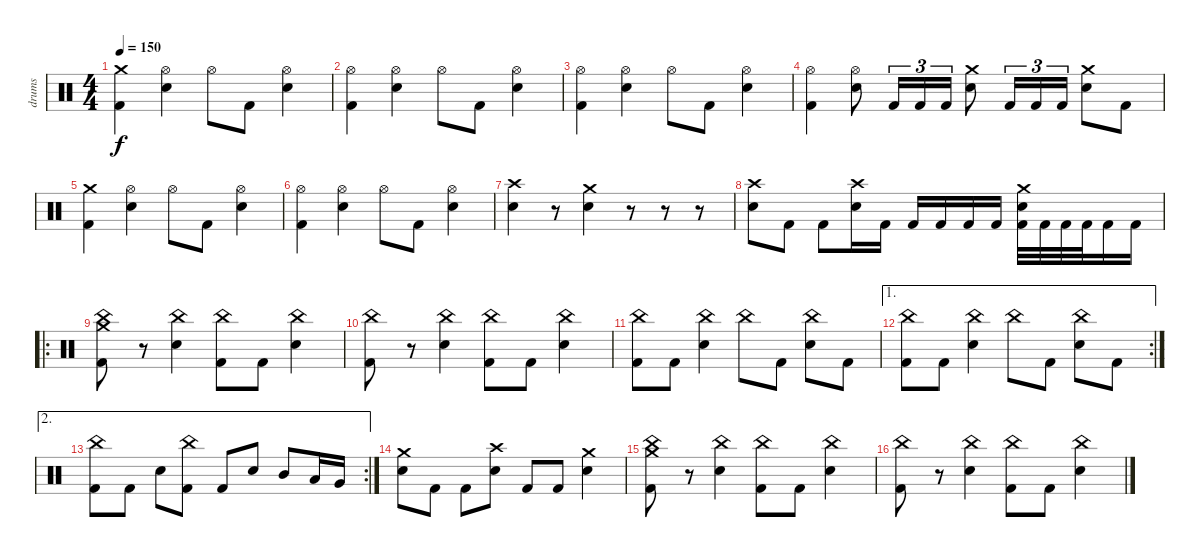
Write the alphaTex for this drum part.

\track ("drums" "drums") {instrument percussion}
\staff {score}
\articulation defaults
\ts (4 4)
\tempo 150
\clef neutral
\ks c
("Crash medium (hit)" "Kick (hit) 2").4{dy f} ("Hi-Hat (open)" "Electric Snare (hit)").4 "Hi-Hat (open)".8 "Kick (hit) 2".8 ("Hi-Hat (open)" "Electric Snare (hit)").4 |
("Hi-Hat (open)" "Kick (hit) 2").4 ("Hi-Hat (open)" "Electric Snare (hit)").4 "Hi-Hat (open)".8 "Kick (hit) 2".8 ("Hi-Hat (open)" "Electric Snare (hit)").4 |
("Hi-Hat (open)" "Kick (hit) 2").4 ("Hi-Hat (open)" "Electric Snare (hit)").4 "Hi-Hat (open)".8 "Kick (hit) 2".8 ("Hi-Hat (open)" "Electric Snare (hit)").4 |
("Hi-Hat (open)" "Kick (hit) 2").4 ("Hi-Hat (open)" "Electric Snare (hit)").8 "Kick (hit) 2".16{tu (3 2)} "Kick (hit) 2".16{tu (3 2)} "Kick (hit) 2".16{tu (3 2)} ("Crash medium (hit)" "Electric Snare (hit)").8 "Kick (hit) 2".16{tu (3 2)} "Kick (hit) 2".16{tu (3 2)} "Kick (hit) 2".16{tu (3 2)} ("Crash medium (hit)" "Electric Snare (hit)").8 "Kick (hit) 2".8 |
("Crash medium (hit)" "Kick (hit) 2").4 ("Hi-Hat (open)" "Electric Snare (hit)").4 "Hi-Hat (open)".8 "Kick (hit) 2".8 ("Hi-Hat (open)" "Electric Snare (hit)").4 |
("Hi-Hat (open)" "Kick (hit) 2").4 ("Hi-Hat (open)" "Electric Snare (hit)").4 "Hi-Hat (open)".8 "Kick (hit) 2".8 ("Hi-Hat (open)" "Electric Snare (hit)").4 |
("Crash high (hit)" "Electric Snare (hit)").4 r.8 ("Crash medium (hit)" "Electric Snare (hit)").4 r.8 r.8 r.8 |
("Crash high (hit)" "Electric Snare (hit)").8 "Kick (hit) 2".8 "Kick (hit) 2".8 ("Crash high (hit)" "Electric Snare (hit)").16 "Kick (hit) 2".16 "Kick (hit) 2".16 "Kick (hit) 2".16 "Kick (hit) 2".16 "Kick (hit) 2".16 ("Crash medium (hit)" "Electric Snare (hit)" "Kick (hit) 2").32 "Kick (hit) 2".32 "Kick (hit) 2".32 "Kick (hit) 2".32 "Kick (hit) 2".16 "Kick (hit) 2".16 |
\ro
("China (hit)" "Crash medium (hit)" "Kick (hit) 2").8 r.8 ("China (hit)" "Electric Snare (hit)").4 ("China (hit)" "Kick (hit) 2").8 "Kick (hit) 2".8 ("China (hit)" "Electric Snare (hit)").4 |
("China (hit)" "Kick (hit) 2").8 r.8 ("China (hit)" "Electric Snare (hit)").4 ("China (hit)" "Kick (hit) 2").8 "Kick (hit) 2".8 ("China (hit)" "Electric Snare (hit)").4 |
("China (hit)" "Kick (hit) 2").8 "Kick (hit) 2".8 ("China (hit)" "Electric Snare (hit)").4 "China (hit)".8 "Kick (hit) 2".8 ("China (hit)" "Electric Snare (hit)").8 "Kick (hit) 2".8 |
\ae 1
\rc 2
("China (hit)" "Kick (hit) 2").8 "Kick (hit) 2".8 ("China (hit)" "Electric Snare (hit)").4 "China (hit)".8 "Kick (hit) 2".8 ("China (hit)" "Electric Snare (hit)").8 "Kick (hit) 2".8 |
\ae 2
\rc 2
("China (hit)" "Kick (hit) 2").8 "Kick (hit) 2".8 "Electric Snare (hit)".8 ("China (hit)" "Kick (hit) 2").8 "Kick (hit) 2".8 "Electric Snare (hit)".8 "Mid Tom (hit)".8 "Low Tom (hit)".16 "Very Low Tom (hit)".16 |
("Crash medium (hit)" "Electric Snare (hit)").8 "Kick (hit) 2".8 "Kick (hit) 2".8 ("Crash high (hit)" "Electric Snare (hit)").8 "Kick (hit) 2".8 "Kick (hit) 2".8 ("Crash medium (hit)" "Electric Snare (hit)").4 |
("China (hit)" "Crash medium (hit)" "Kick (hit) 2").8 r.8 ("China (hit)" "Electric Snare (hit)").4 ("China (hit)" "Kick (hit) 2").8 "Kick (hit) 2".8 ("China (hit)" "Electric Snare (hit)").4 |
("China (hit)" "Kick (hit) 2").8 r.8 ("China (hit)" "Electric Snare (hit)").4 ("China (hit)" "Kick (hit) 2").8 "Kick (hit) 2".8 ("China (hit)" "Electric Snare (hit)").4
